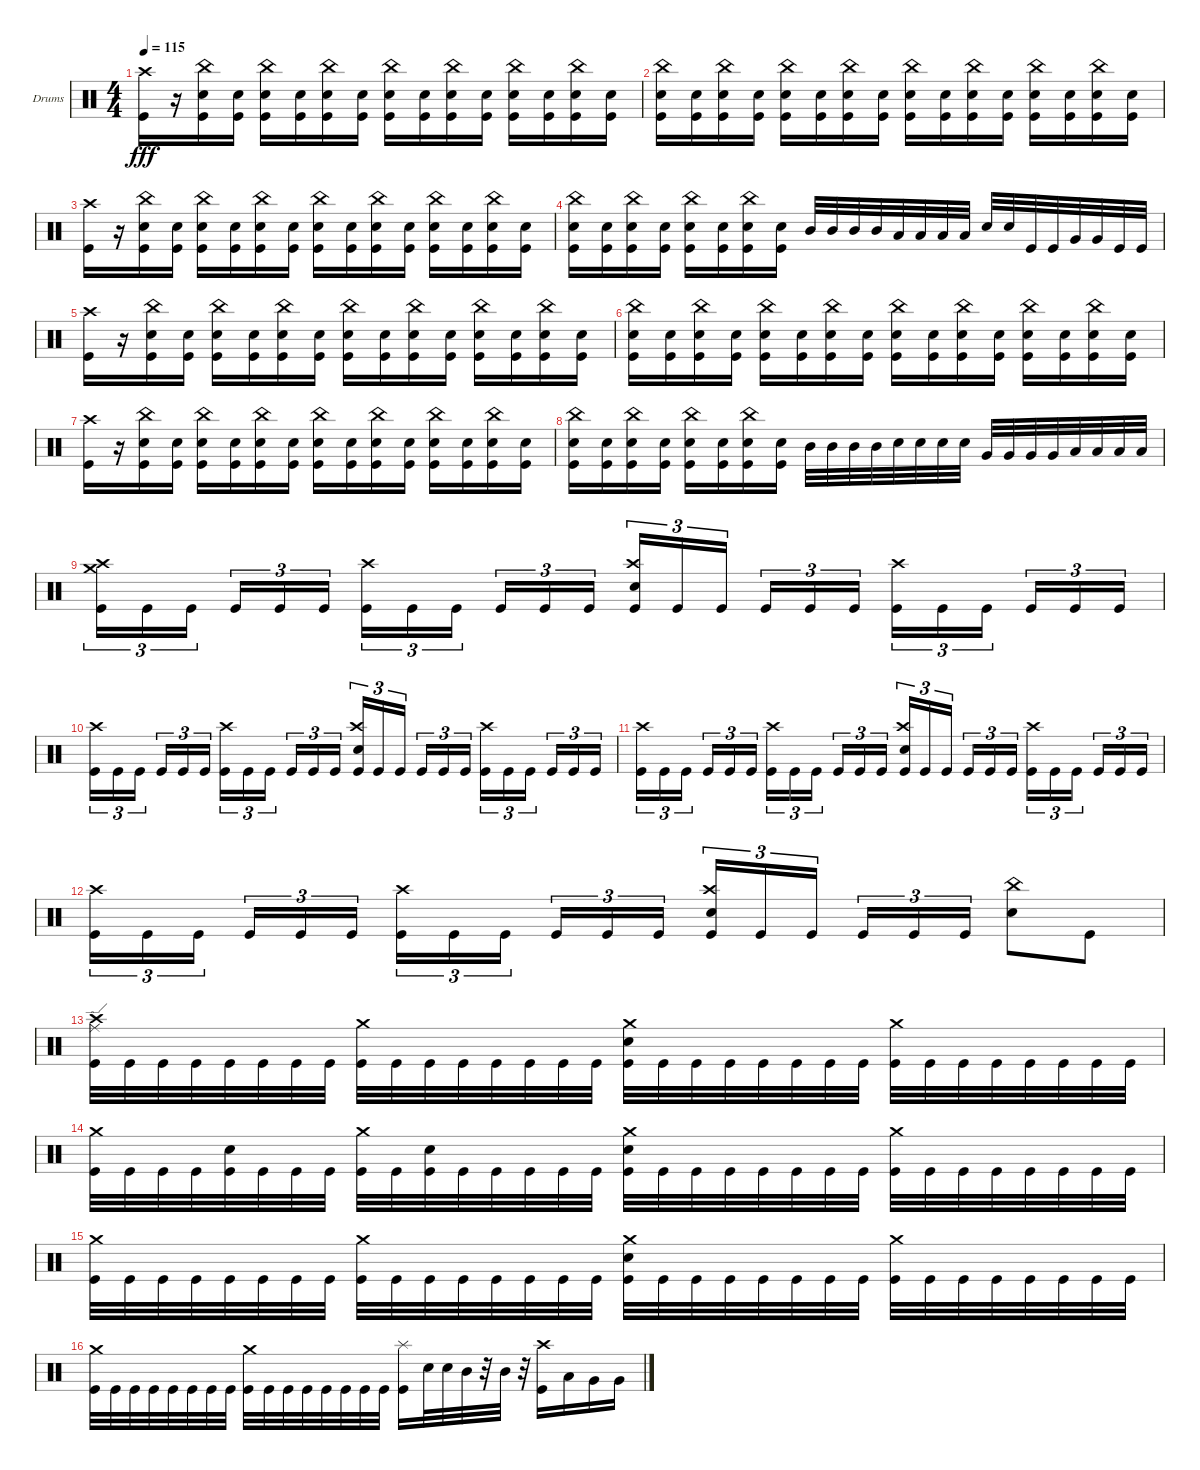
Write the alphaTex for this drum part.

\bracketExtendMode groupsimilarinstruments
\firstSystemTrackNameOrientation horizontal
\otherSystemsTrackNameOrientation horizontal
\track ("Drumkit" "Drums") {instrument percussion}
\staff {score}
\articulation defaults
\ts (4 4)
\tempo 115
\clef neutral
\ks c
("Kick (hit)" "Crash high (hit)").16{dy fff} r.16 ("Snare (hit) 2" "Kick (hit)" "China (hit)").16 ("Snare (hit) 2" "Kick (hit)").16 ("Snare (hit) 2" "Kick (hit)" "China (hit)").16 ("Snare (hit) 2" "Kick (hit)").16 ("Snare (hit) 2" "Kick (hit)" "China (hit)").16 ("Snare (hit) 2" "Kick (hit)").16 ("Snare (hit) 2" "Kick (hit)" "China (hit)").16 ("Snare (hit) 2" "Kick (hit)").16 ("Snare (hit) 2" "Kick (hit)" "China (hit)").16 ("Snare (hit) 2" "Kick (hit)").16 ("Snare (hit) 2" "Kick (hit)" "China (hit)").16 ("Snare (hit) 2" "Kick (hit)").16 ("Snare (hit) 2" "Kick (hit)" "China (hit)").16 ("Snare (hit) 2" "Kick (hit)").16 |
("Snare (hit) 2" "Kick (hit)" "China (hit)").16 ("Snare (hit) 2" "Kick (hit)").16 ("Snare (hit) 2" "Kick (hit)" "China (hit)").16 ("Snare (hit) 2" "Kick (hit)").16 ("Snare (hit) 2" "Kick (hit)" "China (hit)").16 ("Snare (hit) 2" "Kick (hit)").16 ("Snare (hit) 2" "Kick (hit)" "China (hit)").16 ("Snare (hit) 2" "Kick (hit)").16 ("Snare (hit) 2" "Kick (hit)" "China (hit)").16 ("Snare (hit) 2" "Kick (hit)").16 ("Snare (hit) 2" "Kick (hit)" "China (hit)").16 ("Snare (hit) 2" "Kick (hit)").16 ("Snare (hit) 2" "Kick (hit)" "China (hit)").16 ("Snare (hit) 2" "Kick (hit)").16 ("Snare (hit) 2" "Kick (hit)" "China (hit)").16 ("Snare (hit) 2" "Kick (hit)").16 |
("Kick (hit)" "Crash high (hit)").16 r.16 ("Snare (hit) 2" "Kick (hit)" "China (hit)").16 ("Snare (hit) 2" "Kick (hit)").16 ("Snare (hit) 2" "Kick (hit)" "China (hit)").16 ("Snare (hit) 2" "Kick (hit)").16 ("Snare (hit) 2" "Kick (hit)" "China (hit)").16 ("Snare (hit) 2" "Kick (hit)").16 ("Snare (hit) 2" "Kick (hit)" "China (hit)").16 ("Snare (hit) 2" "Kick (hit)").16 ("Snare (hit) 2" "Kick (hit)" "China (hit)").16 ("Snare (hit) 2" "Kick (hit)").16 ("Snare (hit) 2" "Kick (hit)" "China (hit)").16 ("Snare (hit) 2" "Kick (hit)").16 ("Snare (hit) 2" "Kick (hit)" "China (hit)").16 ("Snare (hit) 2" "Kick (hit)").16 |
("Snare (hit) 2" "Kick (hit)" "China (hit)").16 ("Snare (hit) 2" "Kick (hit)").16 ("Snare (hit) 2" "Kick (hit)" "China (hit)").16 ("Snare (hit) 2" "Kick (hit)").16 ("Snare (hit) 2" "Kick (hit)" "China (hit)").16 ("Snare (hit) 2" "Kick (hit)").16 ("Snare (hit) 2" "Kick (hit)" "China (hit)").16 ("Snare (hit) 2" "Kick (hit)").16 "Mid Tom (hit)".32 "Mid Tom (hit)".32 "Mid Tom (hit)".32 "Mid Tom (hit)".32 "Low Tom (hit)".32 "Low Tom (hit)".32 "Low Tom (hit)".32 "Low Tom (hit)".32 "Snare (hit) 2".32 "Snare (hit) 2".32 "Kick (hit)".32 "Kick (hit)".32 "Very Low Tom (hit)".32 "Very Low Tom (hit)".32 "Kick (hit)".32 "Kick (hit)".32 |
("Kick (hit)" "Crash high (hit)").16 r.16 ("Snare (hit) 2" "Kick (hit)" "China (hit)").16 ("Snare (hit) 2" "Kick (hit)").16 ("Snare (hit) 2" "Kick (hit)" "China (hit)").16 ("Snare (hit) 2" "Kick (hit)").16 ("Snare (hit) 2" "Kick (hit)" "China (hit)").16 ("Snare (hit) 2" "Kick (hit)").16 ("Snare (hit) 2" "Kick (hit)" "China (hit)").16 ("Snare (hit) 2" "Kick (hit)").16 ("Snare (hit) 2" "Kick (hit)" "China (hit)").16 ("Snare (hit) 2" "Kick (hit)").16 ("Snare (hit) 2" "Kick (hit)" "China (hit)").16 ("Snare (hit) 2" "Kick (hit)").16 ("Snare (hit) 2" "Kick (hit)" "China (hit)").16 ("Snare (hit) 2" "Kick (hit)").16 |
("Snare (hit) 2" "Kick (hit)" "China (hit)").16 ("Snare (hit) 2" "Kick (hit)").16 ("Snare (hit) 2" "Kick (hit)" "China (hit)").16 ("Snare (hit) 2" "Kick (hit)").16 ("Snare (hit) 2" "Kick (hit)" "China (hit)").16 ("Snare (hit) 2" "Kick (hit)").16 ("Snare (hit) 2" "Kick (hit)" "China (hit)").16 ("Snare (hit) 2" "Kick (hit)").16 ("Snare (hit) 2" "Kick (hit)" "China (hit)").16 ("Snare (hit) 2" "Kick (hit)").16 ("Snare (hit) 2" "Kick (hit)" "China (hit)").16 ("Snare (hit) 2" "Kick (hit)").16 ("Snare (hit) 2" "Kick (hit)" "China (hit)").16 ("Snare (hit) 2" "Kick (hit)").16 ("Snare (hit) 2" "Kick (hit)" "China (hit)").16 ("Snare (hit) 2" "Kick (hit)").16 |
("Kick (hit)" "Crash high (hit)").16 r.16 ("Snare (hit) 2" "Kick (hit)" "China (hit)").16 ("Snare (hit) 2" "Kick (hit)").16 ("Snare (hit) 2" "Kick (hit)" "China (hit)").16 ("Snare (hit) 2" "Kick (hit)").16 ("Snare (hit) 2" "Kick (hit)" "China (hit)").16 ("Snare (hit) 2" "Kick (hit)").16 ("Snare (hit) 2" "Kick (hit)" "China (hit)").16 ("Snare (hit) 2" "Kick (hit)").16 ("Snare (hit) 2" "Kick (hit)" "China (hit)").16 ("Snare (hit) 2" "Kick (hit)").16 ("Snare (hit) 2" "Kick (hit)" "China (hit)").16 ("Snare (hit) 2" "Kick (hit)").16 ("Snare (hit) 2" "Kick (hit)" "China (hit)").16 ("Snare (hit) 2" "Kick (hit)").16 |
("Snare (hit) 2" "Kick (hit)" "China (hit)").16 ("Snare (hit) 2" "Kick (hit)").16 ("Snare (hit) 2" "Kick (hit)" "China (hit)").16 ("Snare (hit) 2" "Kick (hit)").16 ("Snare (hit) 2" "Kick (hit)" "China (hit)").16 ("Snare (hit) 2" "Kick (hit)").16 ("Snare (hit) 2" "Kick (hit)" "China (hit)").16 ("Snare (hit) 2" "Kick (hit)").16 "Mid Tom (hit)".32 "Mid Tom (hit)".32 "Mid Tom (hit)".32 "Mid Tom (hit)".32 "Snare (hit) 2".32 "Snare (hit) 2".32 "Snare (hit) 2".32 "Snare (hit) 2".32 "Very Low Tom (hit)".32 "Very Low Tom (hit)".32 "Very Low Tom (hit)".32 "Very Low Tom (hit)".32 "Low Tom (hit)".32 "Low Tom (hit)".32 "Low Tom (hit)".32 "Low Tom (hit)".32 |
("Kick (hit)" "Crash high (hit)" "Crash medium (hit)").16{tu (3 2)} "Kick (hit)".16{tu (3 2)} "Kick (hit)".16{tu (3 2)} "Kick (hit)".16{tu (3 2)} "Kick (hit)".16{tu (3 2)} "Kick (hit)".16{tu (3 2)} ("Kick (hit)" "Crash high (hit)").16{tu (3 2)} "Kick (hit)".16{tu (3 2)} "Kick (hit)".16{tu (3 2)} "Kick (hit)".16{tu (3 2)} "Kick (hit)".16{tu (3 2)} "Kick (hit)".16{tu (3 2)} ("Kick (hit)" "Snare (hit) 2" "Crash high (hit)").16{tu (3 2)} "Kick (hit)".16{tu (3 2)} "Kick (hit)".16{tu (3 2)} "Kick (hit)".16{tu (3 2)} "Kick (hit)".16{tu (3 2)} "Kick (hit)".16{tu (3 2)} ("Kick (hit)" "Crash high (hit)").16{tu (3 2)} "Kick (hit)".16{tu (3 2)} "Kick (hit)".16{tu (3 2)} "Kick (hit)".16{tu (3 2)} "Kick (hit)".16{tu (3 2)} "Kick (hit)".16{tu (3 2)} |
("Kick (hit)" "Crash high (hit)").16{tu (3 2)} "Kick (hit)".16{tu (3 2)} "Kick (hit)".16{tu (3 2)} "Kick (hit)".16{tu (3 2)} "Kick (hit)".16{tu (3 2)} "Kick (hit)".16{tu (3 2)} ("Kick (hit)" "Crash high (hit)").16{tu (3 2)} "Kick (hit)".16{tu (3 2)} "Kick (hit)".16{tu (3 2)} "Kick (hit)".16{tu (3 2)} "Kick (hit)".16{tu (3 2)} "Kick (hit)".16{tu (3 2)} ("Kick (hit)" "Snare (hit) 2" "Crash high (hit)").16{tu (3 2)} "Kick (hit)".16{tu (3 2)} "Kick (hit)".16{tu (3 2)} "Kick (hit)".16{tu (3 2)} "Kick (hit)".16{tu (3 2)} "Kick (hit)".16{tu (3 2)} ("Kick (hit)" "Crash high (hit)").16{tu (3 2)} "Kick (hit)".16{tu (3 2)} "Kick (hit)".16{tu (3 2)} "Kick (hit)".16{tu (3 2)} "Kick (hit)".16{tu (3 2)} "Kick (hit)".16{tu (3 2)} |
("Kick (hit)" "Crash high (hit)").16{tu (3 2)} "Kick (hit)".16{tu (3 2)} "Kick (hit)".16{tu (3 2)} "Kick (hit)".16{tu (3 2)} "Kick (hit)".16{tu (3 2)} "Kick (hit)".16{tu (3 2)} ("Kick (hit)" "Crash high (hit)").16{tu (3 2)} "Kick (hit)".16{tu (3 2)} "Kick (hit)".16{tu (3 2)} "Kick (hit)".16{tu (3 2)} "Kick (hit)".16{tu (3 2)} "Kick (hit)".16{tu (3 2)} ("Kick (hit)" "Snare (hit) 2" "Crash high (hit)").16{tu (3 2)} "Kick (hit)".16{tu (3 2)} "Kick (hit)".16{tu (3 2)} "Kick (hit)".16{tu (3 2)} "Kick (hit)".16{tu (3 2)} "Kick (hit)".16{tu (3 2)} ("Kick (hit)" "Crash high (hit)").16{tu (3 2)} "Kick (hit)".16{tu (3 2)} "Kick (hit)".16{tu (3 2)} "Kick (hit)".16{tu (3 2)} "Kick (hit)".16{tu (3 2)} "Kick (hit)".16{tu (3 2)} |
("Kick (hit)" "Crash high (hit)").16{tu (3 2)} "Kick (hit)".16{tu (3 2)} "Kick (hit)".16{tu (3 2)} "Kick (hit)".16{tu (3 2)} "Kick (hit)".16{tu (3 2)} "Kick (hit)".16{tu (3 2)} ("Kick (hit)" "Crash high (hit)").16{tu (3 2)} "Kick (hit)".16{tu (3 2)} "Kick (hit)".16{tu (3 2)} "Kick (hit)".16{tu (3 2)} "Kick (hit)".16{tu (3 2)} "Kick (hit)".16{tu (3 2)} ("Kick (hit)" "Snare (hit) 2" "Crash high (hit)").16{tu (3 2)} "Kick (hit)".16{tu (3 2)} "Kick (hit)".16{tu (3 2)} "Kick (hit)".16{tu (3 2)} "Kick (hit)".16{tu (3 2)} "Kick (hit)".16{tu (3 2)} ("Snare (hit) 2" "China (hit)").8 "Kick (hit)".8 |
("Kick (hit)" "Crash high (hit)" "Ride (edge)").32 "Kick (hit)".32 "Kick (hit)".32 "Kick (hit)".32 "Kick (hit)".32 "Kick (hit)".32 "Kick (hit)".32 "Kick (hit)".32 ("Kick (hit)" "Crash medium (hit)").32 "Kick (hit)".32 "Kick (hit)".32 "Kick (hit)".32 "Kick (hit)".32 "Kick (hit)".32 "Kick (hit)".32 "Kick (hit)".32 ("Kick (hit)" "Snare (hit) 2" "Crash medium (hit)").32 "Kick (hit)".32 "Kick (hit)".32 "Kick (hit)".32 "Kick (hit)".32 "Kick (hit)".32 "Kick (hit)".32 "Kick (hit)".32 ("Kick (hit)" "Crash medium (hit)").32 "Kick (hit)".32 "Kick (hit)".32 "Kick (hit)".32 "Kick (hit)".32 "Kick (hit)".32 "Kick (hit)".32 "Kick (hit)".32 |
("Kick (hit)" "Crash medium (hit)").32 "Kick (hit)".32 "Kick (hit)".32 "Kick (hit)".32 ("Kick (hit)" "Snare (hit) 2").32 "Kick (hit)".32 "Kick (hit)".32 "Kick (hit)".32 ("Kick (hit)" "Crash medium (hit)").32 "Kick (hit)".32 ("Kick (hit)" "Snare (hit) 2").32 "Kick (hit)".32 "Kick (hit)".32 "Kick (hit)".32 "Kick (hit)".32 "Kick (hit)".32 ("Kick (hit)" "Crash medium (hit)" "Snare (hit) 2").32 "Kick (hit)".32 "Kick (hit)".32 "Kick (hit)".32 "Kick (hit)".32 "Kick (hit)".32 "Kick (hit)".32 "Kick (hit)".32 ("Kick (hit)" "Crash medium (hit)").32 "Kick (hit)".32 "Kick (hit)".32 "Kick (hit)".32 "Kick (hit)".32 "Kick (hit)".32 "Kick (hit)".32 "Kick (hit)".32 |
("Kick (hit)" "Crash medium (hit)").32 "Kick (hit)".32 "Kick (hit)".32 "Kick (hit)".32 "Kick (hit)".32 "Kick (hit)".32 "Kick (hit)".32 "Kick (hit)".32 ("Kick (hit)" "Crash medium (hit)").32 "Kick (hit)".32 "Kick (hit)".32 "Kick (hit)".32 "Kick (hit)".32 "Kick (hit)".32 "Kick (hit)".32 "Kick (hit)".32 ("Kick (hit)" "Snare (hit) 2" "Crash medium (hit)").32 "Kick (hit)".32 "Kick (hit)".32 "Kick (hit)".32 "Kick (hit)".32 "Kick (hit)".32 "Kick (hit)".32 "Kick (hit)".32 ("Kick (hit)" "Crash medium (hit)").32 "Kick (hit)".32 "Kick (hit)".32 "Kick (hit)".32 "Kick (hit)".32 "Kick (hit)".32 "Kick (hit)".32 "Kick (hit)".32 |
("Kick (hit)" "Crash medium (hit)").32 "Kick (hit)".32 "Kick (hit)".32 "Kick (hit)".32 "Kick (hit)".32 "Kick (hit)".32 "Kick (hit)".32 "Kick (hit)".32 ("Kick (hit)" "Crash medium (hit)").32 "Kick (hit)".32 "Kick (hit)".32 "Kick (hit)".32 "Kick (hit)".32 "Kick (hit)".32 "Kick (hit)".32 "Kick (hit)".32 ("Kick (hit)" "Splash (hit)").16 "Snare (hit) 2".32 "Snare (hit) 2".32 "Mid Tom (hit)".32 r.32 "Mid Tom (hit)".32 r.32 ("Kick (hit)" "Crash high (hit)").16 "Low Tom (hit)".16 "Very Low Tom (hit)".16 "Very Low Tom (hit)".16
